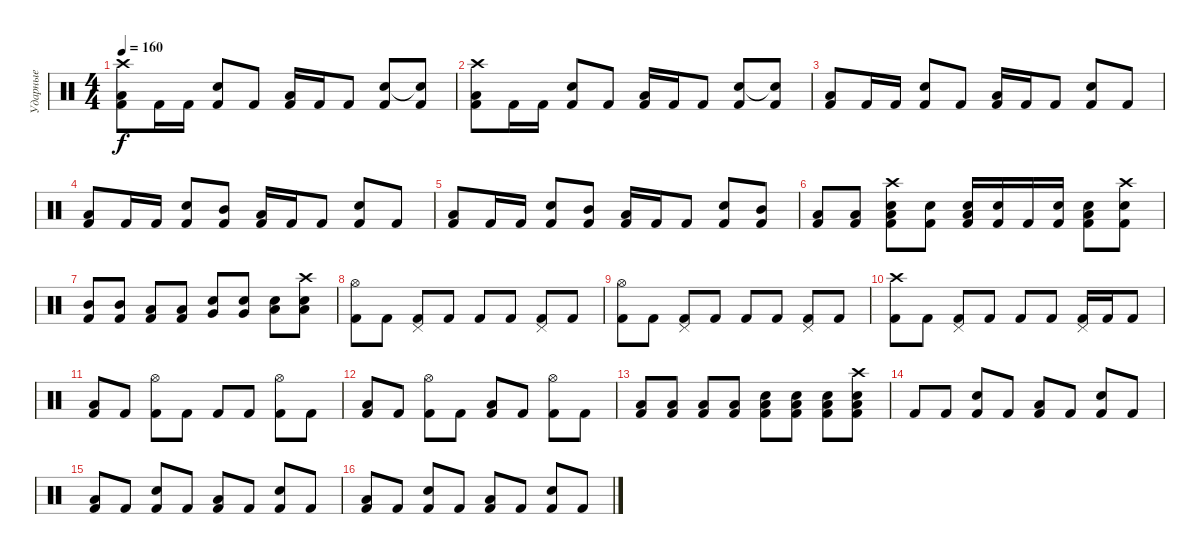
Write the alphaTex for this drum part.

\track ("Ударные" "Ударные") {instrument percussion}
\staff {score}
\articulation defaults
\ts (4 4)
\tempo 160
\clef neutral
\ks c
("Crash high (hit)" "Low Tom (hit)" "Kick (hit) 2").8{dy f} "Kick (hit) 2".16 "Kick (hit) 2".16 ("Snare (hit) 2" "Kick (hit) 2").8 "Kick (hit) 2".8 ("Low Tom (hit)" "Kick (hit) 2").16 "Kick (hit) 2".16 "Kick (hit) 2".8 ("Snare (hit) 2" "Kick (hit) 2").8 ("Snare (hit)"{t} "Kick (hit) 2").8 |
("Crash high (hit)" "Low Tom (hit)" "Kick (hit) 2").8 "Kick (hit) 2".16 "Kick (hit) 2".16 ("Snare (hit) 2" "Kick (hit) 2").8 "Kick (hit) 2".8 ("Low Tom (hit)" "Kick (hit) 2").16 "Kick (hit) 2".16 "Kick (hit) 2".8 ("Snare (hit) 2" "Kick (hit) 2").8 ("Snare (hit)"{t} "Kick (hit) 2").8 |
("Low Tom (hit)" "Kick (hit) 2").8 "Kick (hit) 2".16 "Kick (hit) 2".16 ("Snare (hit) 2" "Kick (hit) 2").8 "Kick (hit) 2".8 ("Low Tom (hit)" "Kick (hit) 2").16 "Kick (hit) 2".16 "Kick (hit) 2".8 ("Snare (hit) 2" "Kick (hit) 2").8 "Kick (hit) 2".8 |
("Low Tom (hit)" "Kick (hit) 2").8 "Kick (hit) 2".16 "Kick (hit) 2".16 ("Snare (hit) 2" "Kick (hit) 2").8 ("Mid Tom (hit)" "Kick (hit) 2").8 ("Low Tom (hit)" "Kick (hit) 2").16 "Kick (hit) 2".16 "Kick (hit) 2".8 ("Snare (hit) 2" "Kick (hit) 2").8 "Kick (hit) 2".8 |
("Low Tom (hit)" "Kick (hit) 2").8 "Kick (hit) 2".16 "Kick (hit) 2".16 ("Snare (hit) 2" "Kick (hit) 2").8 ("Mid Tom (hit)" "Kick (hit) 2").8 ("Low Tom (hit)" "Kick (hit) 2").16 "Kick (hit) 2".16 "Kick (hit) 2".8 ("Snare (hit) 2" "Kick (hit) 2").8 ("Mid Tom (hit)" "Kick (hit) 2").8 |
("Low Tom (hit)" "Kick (hit) 2").8 ("Low Tom (hit)" "Kick (hit) 2").8 ("Crash high (hit)" "Low Tom (hit)" "Snare (hit) 2" "Kick (hit) 2").8 ("Snare (hit) 2" "Kick (hit) 2").8 ("Low Tom (hit)" "Snare (hit) 2" "Kick (hit) 2").16 ("Snare (hit) 2" "Kick (hit) 2").16 "Kick (hit) 2".16 ("Snare (hit) 2" "Kick (hit) 2").16 ("Low Tom (hit)" "Snare (hit) 2" "Kick (hit) 2").8 ("Crash high (hit)" "Snare (hit) 2" "Kick (hit) 2").8 |
("Mid Tom (hit)" "Kick (hit) 2").8 ("Mid Tom (hit)" "Kick (hit) 2").8 ("Low Tom (hit)" "Kick (hit) 2").8 ("Low Tom (hit)" "Kick (hit) 2").8 ("Very Low Tom (hit)" "Snare (hit) 2").8 ("Very Low Tom (hit)" "Snare (hit) 2").8 ("Low Floor Tom (hit)" "Snare (hit) 2").8 ("Crash high (hit)" "Low Floor Tom (hit)" "Snare (hit) 2").8 |
("Hi-Hat (open)" "Kick (hit) 2").8 "Kick (hit) 2".8 ("Pedal Hi-Hat (hit)" "Kick (hit) 2").8 "Kick (hit) 2".8 "Kick (hit) 2".8 "Kick (hit) 2".8 ("Pedal Hi-Hat (hit)" "Kick (hit) 2").8 "Kick (hit) 2".8 |
("Hi-Hat (open)" "Kick (hit) 2").8 "Kick (hit) 2".8 ("Pedal Hi-Hat (hit)" "Kick (hit) 2").8 "Kick (hit) 2".8 "Kick (hit) 2".8 "Kick (hit) 2".8 ("Pedal Hi-Hat (hit)" "Kick (hit) 2").8 "Kick (hit) 2".8 |
("Crash high (hit)" "Kick (hit) 2").8 "Kick (hit) 2".8 ("Pedal Hi-Hat (hit)" "Kick (hit) 2").8 "Kick (hit) 2".8 "Kick (hit) 2".8 "Kick (hit) 2".8 ("Pedal Hi-Hat (hit)" "Kick (hit) 2").16 "Kick (hit) 2".16 "Kick (hit) 2".8 |
("Low Tom (hit)" "Kick (hit) 2").8 "Kick (hit) 2".8 ("Hi-Hat (open)" "Kick (hit) 2").8 "Kick (hit) 2".8 "Kick (hit) 2".8 "Kick (hit) 2".8 ("Hi-Hat (open)" "Kick (hit) 2").8 "Kick (hit) 2".8 |
("Low Tom (hit)" "Kick (hit) 2").8 "Kick (hit) 2".8 ("Hi-Hat (open)" "Kick (hit) 2").8 "Kick (hit) 2".8 ("Low Tom (hit)" "Kick (hit) 2").8 "Kick (hit) 2".8 ("Hi-Hat (open)" "Kick (hit) 2").8 "Kick (hit) 2".8 |
("Low Tom (hit)" "Kick (hit) 2").8 ("Low Tom (hit)" "Kick (hit) 2").8 ("Low Tom (hit)" "Kick (hit) 2").8 ("Low Tom (hit)" "Kick (hit) 2").8 ("Snare (hit) 2" "Low Tom (hit)" "Kick (hit) 2").8 ("Snare (hit) 2" "Low Tom (hit)" "Kick (hit) 2").8 ("Snare (hit) 2" "Low Tom (hit)" "Kick (hit) 2").8 ("Crash high (hit)" "Snare (hit) 2" "Low Tom (hit)" "Kick (hit) 2").8 |
"Kick (hit) 2".8 "Kick (hit) 2".8 ("Snare (hit) 2" "Kick (hit) 2").8 "Kick (hit) 2".8 ("Low Tom (hit)" "Kick (hit) 2").8 "Kick (hit) 2".8 ("Snare (hit) 2" "Kick (hit) 2").8 "Kick (hit) 2".8 |
("Low Tom (hit)" "Kick (hit) 2").8 "Kick (hit) 2".8 ("Snare (hit) 2" "Kick (hit) 2").8 "Kick (hit) 2".8 ("Low Tom (hit)" "Kick (hit) 2").8 "Kick (hit) 2".8 ("Snare (hit) 2" "Kick (hit) 2").8 "Kick (hit) 2".8 |
("Low Tom (hit)" "Kick (hit) 2").8 "Kick (hit) 2".8 ("Snare (hit) 2" "Kick (hit) 2").8 "Kick (hit) 2".8 ("Low Tom (hit)" "Kick (hit) 2").8 "Kick (hit) 2".8 ("Snare (hit) 2" "Kick (hit) 2").8 "Kick (hit) 2".8
